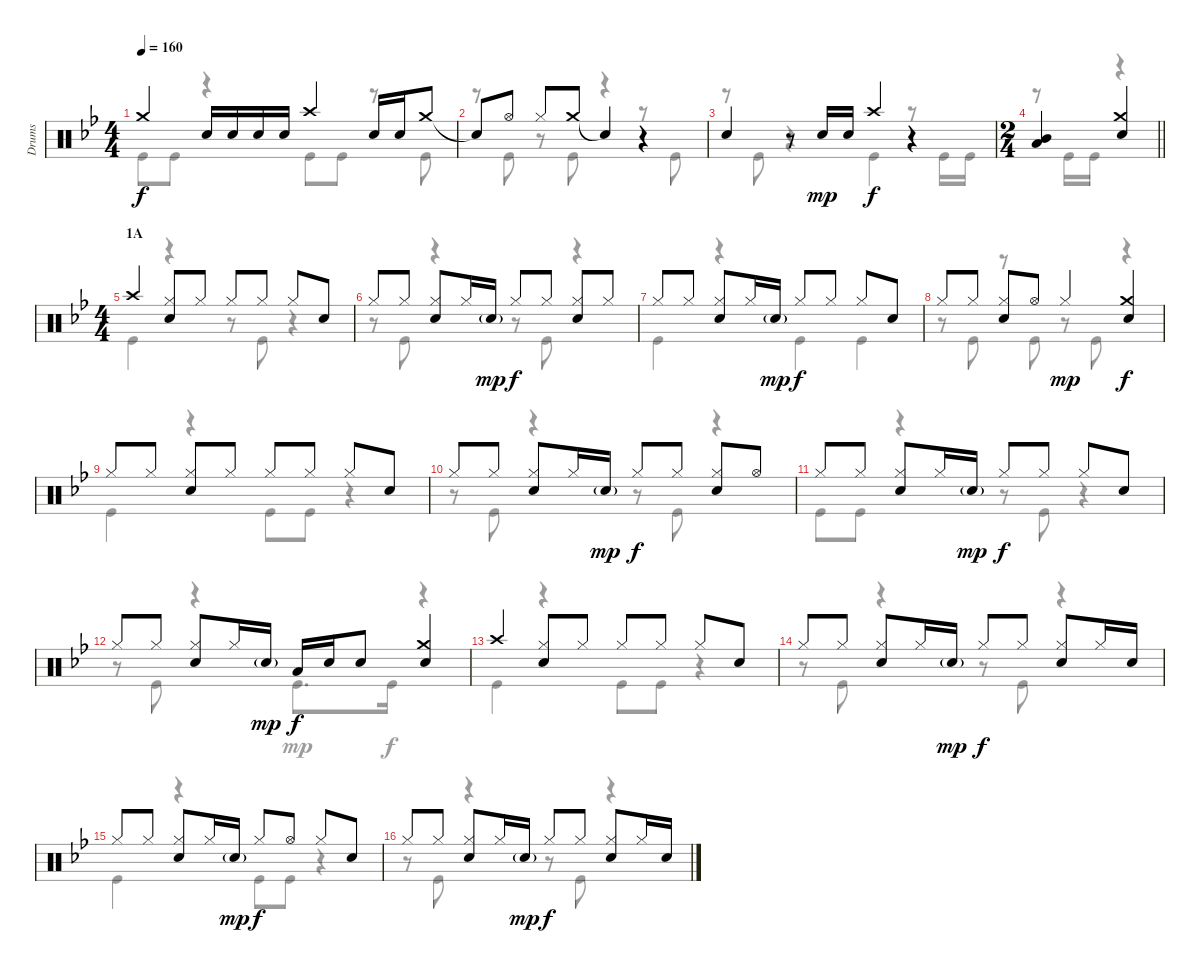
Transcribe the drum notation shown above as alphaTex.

\track ("Drums" "Drums") {instrument percussion}
\staff {score}
\articulation defaults
\voice
\ts (4 4)
\tempo 160
\clef neutral
\ks bb "Crash medium (hit)".4{dy f} "Snare (hit) 2".16 "Snare (hit) 2".16 "Snare (hit) 2".16 "Snare (hit) 2".16 "Crash high (hit)".4 "Snare (hit) 2".16 "Snare (hit) 2".16 "Crash medium (hit)".8
|
"Snare (hit)"{t}.8 "Hi-Hat (open)".8 "Hi-Hat (closed)".8 "Crash medium (hit)".8 "Snare (hit)"{t}.4 r.4 |
"Snare (hit) 2".4 r.8 "Snare (hit) 2".16{dy mp} "Snare (hit) 2".16 "Crash high (hit)".4{dy f} r.4 |
\ts (2 4)
\barLineRight lightlight
("Mid Tom (hit)" "Low Tom (hit)").4 ("Crash medium (hit)" "Snare (hit) 2").4 |
\ts (4 4)
\section ("" "1A")
"Crash high (hit)".4 ("Hi-Hat (closed)" "Snare (hit) 2").8 "Hi-Hat (closed)".8 "Hi-Hat (closed)".8 "Hi-Hat (closed)".8 "Hi-Hat (closed)".8 "Snare (hit) 2".8 |
"Hi-Hat (closed)".8 "Hi-Hat (closed)".8 ("Hi-Hat (closed)" "Snare (hit) 2").8 "Hi-Hat (closed)".16 "Snare (hit) 2"{g}.16{dy mp} "Hi-Hat (closed)".8{dy f} "Hi-Hat (closed)".8 ("Hi-Hat (closed)" "Snare (hit) 2").8 "Hi-Hat (closed)".8 |
"Hi-Hat (closed)".8 "Hi-Hat (closed)".8 ("Hi-Hat (closed)" "Snare (hit) 2").8 "Hi-Hat (closed)".16 "Snare (hit) 2"{g}.16{dy mp} "Hi-Hat (closed)".8{dy f} "Hi-Hat (closed)".8 "Hi-Hat (closed)".8 "Snare (hit) 2".8 |
"Hi-Hat (closed)".8 "Hi-Hat (closed)".8 ("Hi-Hat (closed)" "Snare (hit) 2").8 "Hi-Hat (open)".8 "Hi-Hat (closed)".4{dy mp} ("Crash medium (hit)" "Snare (hit) 2").4{dy f} |
"Hi-Hat (closed)".8 "Hi-Hat (closed)".8 ("Hi-Hat (closed)" "Snare (hit) 2").8 "Hi-Hat (closed)".8 "Hi-Hat (closed)".8 "Hi-Hat (closed)".8 "Hi-Hat (closed)".8 "Snare (hit) 2".8 |
"Hi-Hat (closed)".8 "Hi-Hat (closed)".8 ("Hi-Hat (closed)" "Snare (hit) 2").8 "Hi-Hat (closed)".16 "Snare (hit) 2"{g}.16{dy mp} "Hi-Hat (closed)".8{dy f} "Hi-Hat (closed)".8 ("Hi-Hat (closed)" "Snare (hit) 2").8 "Hi-Hat (open)".8 |
"Hi-Hat (closed)".8 "Hi-Hat (closed)".8 ("Hi-Hat (closed)" "Snare (hit) 2").8 "Hi-Hat (closed)".16 "Snare (hit) 2"{g}.16{dy mp} "Hi-Hat (closed)".8{dy f} "Hi-Hat (closed)".8 "Hi-Hat (closed)".8 "Snare (hit) 2".8 |
"Hi-Hat (closed)".8 "Hi-Hat (closed)".8 ("Hi-Hat (closed)" "Snare (hit) 2").8 "Hi-Hat (closed)".16 "Snare (hit) 2"{g}.16{dy mp} "Low Tom (hit)".16{dy f} "Snare (hit) 2".16 "Snare (hit) 2".8 ("Crash medium (hit)" "Snare (hit) 2").4 |
"Crash high (hit)".4 ("Hi-Hat (closed)" "Snare (hit) 2").8 "Hi-Hat (closed)".8 "Hi-Hat (closed)".8 "Hi-Hat (closed)".8 "Hi-Hat (closed)".8 "Snare (hit) 2".8 |
"Hi-Hat (closed)".8 "Hi-Hat (closed)".8 ("Hi-Hat (closed)" "Snare (hit) 2").8 "Hi-Hat (closed)".16 "Snare (hit) 2"{g}.16{dy mp} "Hi-Hat (closed)".8{dy f} "Hi-Hat (closed)".8 ("Hi-Hat (closed)" "Snare (hit) 2").8 "Hi-Hat (closed)".16 "Snare (hit) 2".16 |
"Hi-Hat (closed)".8 "Hi-Hat (closed)".8 ("Hi-Hat (closed)" "Snare (hit) 2").8 "Hi-Hat (closed)".16 "Snare (hit) 2"{g}.16{dy mp} "Hi-Hat (closed)".8{dy f} "Hi-Hat (open)".8 "Hi-Hat (closed)".8 "Snare (hit) 2".8 |
"Hi-Hat (closed)".8 "Hi-Hat (closed)".8 ("Hi-Hat (closed)" "Snare (hit) 2").8 "Hi-Hat (closed)".16 "Snare (hit) 2"{g}.16{dy mp} "Hi-Hat (closed)".8{dy f} "Hi-Hat (closed)".8 ("Hi-Hat (closed)" "Snare (hit) 2").8 "Hi-Hat (closed)".16 "Snare (hit) 2".16
\voice
\clef neutral
\ottava regular
\simile none
\ks bb "Kick (hit)".8{dy f} "Kick (hit)".8
r.4 "Kick (hit)".8 "Kick (hit)".8 r.8 "Kick (hit)".8 |
r.8 "Kick (hit)".8 r.8 "Kick (hit)".8 r.4 r.8 "Kick (hit)".8 |
r.8 "Kick (hit)".8 r.4 "Kick (hit)".4 r.8 "Kick (hit)".16 "Kick (hit)".16 |
\barLineRight lightlight
r.8 "Kick (hit)".16 "Kick (hit)".16 r.4 |
"Kick (hit)".4 r.4 r.8 "Kick (hit)".8 r.4 |
r.8 "Kick (hit)".8 r.4 r.8 "Kick (hit)".8 r.4 |
"Kick (hit)".4 r.4 "Kick (hit)".4 "Kick (hit)".4 |
r.8 "Kick (hit)".8 r.8 "Kick (hit)".8 r.8 "Kick (hit)".8 r.4 |
"Kick (hit)".4 r.4 "Kick (hit)".8 "Kick (hit)".8 r.4 |
r.8 "Kick (hit)".8 r.4 r.8 "Kick (hit)".8 r.4 |
"Kick (hit)".8 "Kick (hit)".8 r.4 r.8 "Kick (hit)".8 r.4 |
r.8 "Kick (hit)".8 r.4 "Kick (hit)".8{d dy mp} "Kick (hit)".16{dy f} r.4 |
"Kick (hit)".4 r.4 "Kick (hit)".8 "Kick (hit)".8 r.4 |
r.8 "Kick (hit)".8 r.4 r.8 "Kick (hit)".8 r.4 |
"Kick (hit)".4 r.4 "Kick (hit)".8 "Kick (hit)".8 r.4 |
r.8 "Kick (hit)".8 r.4 r.8 "Kick (hit)".8 r.4
